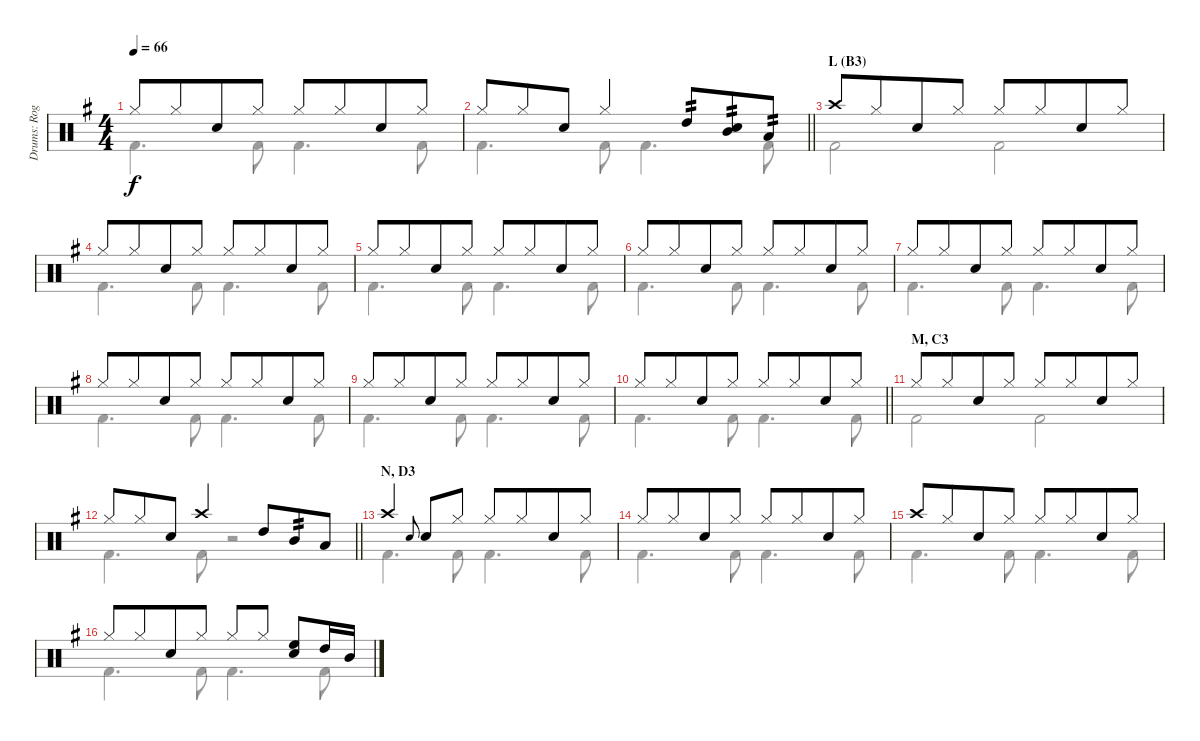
\track ("Drums: Roger Pope" "Drums: Rog") {instrument percussion}
\staff {score}
\articulation defaults
\voice
\ts (4 4)
\tempo 66
\clef neutral
\ks g "Hi-Hat (closed)".8{dy f beam merge} "Hi-Hat (closed)".8{beam merge} "Electric Snare (hit)".8{beam merge} "Hi-Hat (closed)".8 "Hi-Hat (closed)".8 "Hi-Hat (closed)".8{beam merge} "Electric Snare (hit)".8 "Hi-Hat (closed)".8
|
\barLineRight lightlight "Hi-Hat (closed)".8 "Hi-Hat (closed)".8{beam merge} "Snare (hit) 2".8 "Hi-Hat (closed)".4 "High Tom (hit)".8{tp 2 beam merge}
("Electric Snare (hit)" "Mid Tom (hit)").8{tp 2} "Low Tom (hit)".8{tp 2} |
\section ("" "L (B3)")
"Crash high (hit)".8 "Hi-Hat (closed)".8{beam merge} "Electric Snare (hit)".8 "Hi-Hat (closed)".8 "Hi-Hat (closed)".8 "Hi-Hat (closed)".8{beam merge} "Electric Snare (hit)".8 "Hi-Hat (closed)".8 |
"Hi-Hat (closed)".8 "Hi-Hat (closed)".8{beam merge} "Electric Snare (hit)".8 "Hi-Hat (closed)".8 "Hi-Hat (closed)".8 "Hi-Hat (closed)".8{beam merge} "Electric Snare (hit)".8 "Hi-Hat (closed)".8 |
"Hi-Hat (closed)".8 "Hi-Hat (closed)".8{beam merge} "Electric Snare (hit)".8 "Hi-Hat (closed)".8 "Hi-Hat (closed)".8 "Hi-Hat (closed)".8{beam merge} "Electric Snare (hit)".8 "Hi-Hat (closed)".8 |
"Hi-Hat (closed)".8 "Hi-Hat (closed)".8{beam merge} "Electric Snare (hit)".8 "Hi-Hat (closed)".8 "Hi-Hat (closed)".8 "Hi-Hat (closed)".8{beam merge} "Electric Snare (hit)".8 "Hi-Hat (closed)".8 |
"Hi-Hat (closed)".8 "Hi-Hat (closed)".8{beam merge} "Electric Snare (hit)".8 "Hi-Hat (closed)".8 "Hi-Hat (closed)".8 "Hi-Hat (closed)".8{beam merge} "Electric Snare (hit)".8 "Hi-Hat (closed)".8 |
"Hi-Hat (closed)".8 "Hi-Hat (closed)".8{beam merge} "Electric Snare (hit)".8 "Hi-Hat (closed)".8 "Hi-Hat (closed)".8 "Hi-Hat (closed)".8{beam merge} "Electric Snare (hit)".8 "Hi-Hat (closed)".8 |
"Hi-Hat (closed)".8 "Hi-Hat (closed)".8{beam merge} "Electric Snare (hit)".8 "Hi-Hat (closed)".8 "Hi-Hat (closed)".8 "Hi-Hat (closed)".8{beam merge} "Electric Snare (hit)".8 "Hi-Hat (closed)".8 |
\barLineRight lightlight "Hi-Hat (closed)".8 "Hi-Hat (closed)".8{beam merge} "Electric Snare (hit)".8 "Hi-Hat (closed)".8 "Hi-Hat (closed)".8 "Hi-Hat (closed)".8{beam merge} "Electric Snare (hit)".8 "Hi-Hat (closed)".8
|
\section ("" "M, C3")
"Hi-Hat (closed)".8 "Hi-Hat (closed)".8{beam merge} "Electric Snare (hit)".8 "Hi-Hat (closed)".8 "Hi-Hat (closed)".8 "Hi-Hat (closed)".8{beam merge} "Electric Snare (hit)".8 "Hi-Hat (closed)".8 |
\barLineRight lightlight "Hi-Hat (closed)".8 "Hi-Hat (closed)".8{beam merge} "Electric Snare (hit)".8 "Crash high (hit)".4 "High Tom (hit)".8{beam merge} "Mid Tom (hit)".8{tp 2} "Low Tom (hit)".8
|
\section ("" "N, D3")
"Crash high (hit)".4 "Snare (hit) 2".8{gr onbeat} "Electric Snare (hit)".8 "Hi-Hat (closed)".8 "Hi-Hat (closed)".8 "Hi-Hat (closed)".8{beam merge} "Electric Snare (hit)".8 "Hi-Hat (closed)".8 |
"Hi-Hat (closed)".8 "Hi-Hat (closed)".8{beam merge} "Electric Snare (hit)".8 "Hi-Hat (closed)".8 "Hi-Hat (closed)".8 "Hi-Hat (closed)".8{beam merge} "Electric Snare (hit)".8 "Hi-Hat (closed)".8 |
"Crash high (hit)".8 "Hi-Hat (closed)".8{beam merge} "Electric Snare (hit)".8 "Hi-Hat (closed)".8 "Hi-Hat (closed)".8 "Hi-Hat (closed)".8{beam merge} "Electric Snare (hit)".8 "Hi-Hat (closed)".8 |
"Hi-Hat (closed)".8 "Hi-Hat (closed)".8{beam merge} "Electric Snare (hit)".8 "Hi-Hat (closed)".8 "Hi-Hat (closed)".8 "Hi-Hat (closed)".8 ("Electric Snare (hit)" "High Floor Tom (hit)").8 "High Tom (hit)".16 "Mid Tom (hit)".16
\voice
\clef neutral
\ottava regular
\simile none
\ks g "Kick (hit) 2".4{d dy f} "Kick (hit) 2".8 "Kick (hit) 2".4{d} "Kick (hit) 2".8
|
\barLineRight lightlight "Kick (hit) 2".4{d} "Kick (hit) 2".8 "Kick (hit) 2".4{d} "Kick (hit) 2".8
|
"Kick (hit) 2".2 "Kick (hit) 2".2 |
"Kick (hit) 2".4{d} "Kick (hit) 2".8 "Kick (hit) 2".4{d} "Kick (hit) 2".8 |
"Kick (hit) 2".4{d} "Kick (hit) 2".8 "Kick (hit) 2".4{d} "Kick (hit) 2".8 |
"Kick (hit) 2".4{d} "Kick (hit) 2".8 "Kick (hit) 2".4{d} "Kick (hit) 2".8 |
"Kick (hit) 2".4{d} "Kick (hit) 2".8 "Kick (hit) 2".4{d} "Kick (hit) 2".8 |
"Kick (hit) 2".4{d} "Kick (hit) 2".8 "Kick (hit) 2".4{d} "Kick (hit) 2".8 |
"Kick (hit) 2".4{d} "Kick (hit) 2".8 "Kick (hit) 2".4{d} "Kick (hit) 2".8 |
\barLineRight lightlight "Kick (hit) 2".4{d} "Kick (hit) 2".8 "Kick (hit) 2".4{d} "Kick (hit) 2".8
|
"Kick (hit) 2".2 "Kick (hit) 2".2 |
\barLineRight lightlight "Kick (hit) 2".4{d} "Kick (hit) 2".8
r.2 |
"Kick (hit) 2".4{d} "Kick (hit) 2".8 "Kick (hit) 2".4{d} "Kick (hit) 2".8 |
"Kick (hit) 2".4{d} "Kick (hit) 2".8 "Kick (hit) 2".4{d} "Kick (hit) 2".8 |
"Kick (hit) 2".4{d} "Kick (hit) 2".8 "Kick (hit) 2".4{d} "Kick (hit) 2".8 |
"Kick (hit) 2".4{d} "Kick (hit) 2".8 "Kick (hit) 2".4{d} "Kick (hit) 2".8
